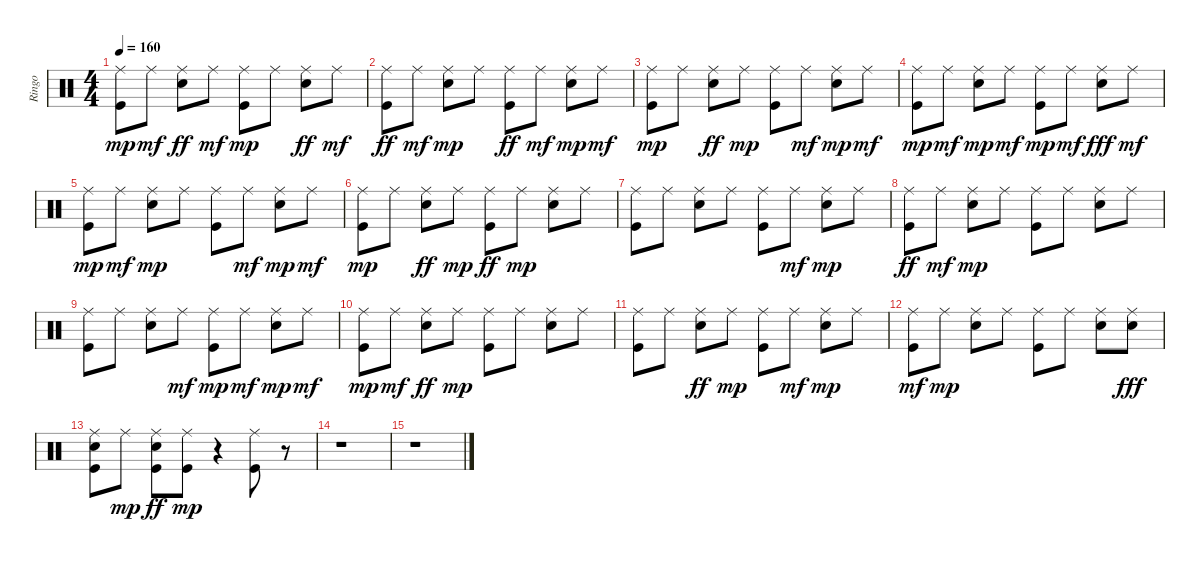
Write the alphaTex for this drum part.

\track ("Ringo" "Ringo") {instrument percussion}
\staff {score}
\articulation defaults
\ts (4 4)
\tempo 160
\clef neutral
\ks c
("Kick (hit)" "Ride (middle)").8{dy mp} "Ride (middle)".8{dy mf} ("Ride (middle)" "Electric Snare (hit)").8{dy ff} "Ride (middle)".8{dy mf} ("Kick (hit)" "Ride (middle)").8{dy mp} "Ride (middle)".8 ("Ride (middle)" "Electric Snare (hit)").8{dy ff} "Ride (middle)".8{dy mf} |
("Ride (middle)" "Kick (hit)").8{dy ff} "Ride (middle)".8{dy mf} ("Electric Snare (hit)" "Ride (middle)").8{dy mp} "Ride (middle)".8 ("Ride (middle)" "Kick (hit)").8{dy ff} "Ride (middle)".8{dy mf} ("Ride (middle)" "Electric Snare (hit)").8{dy mp} "Ride (middle)".8{dy mf} |
("Kick (hit)" "Ride (middle)").8{dy mp} "Ride (middle)".8 ("Ride (middle)" "Electric Snare (hit)").8{dy ff} "Ride (middle)".8{dy mp} ("Ride (middle)" "Kick (hit)").8 "Ride (middle)".8{dy mf} ("Electric Snare (hit)" "Ride (middle)").8{dy mp} "Ride (middle)".8{dy mf} |
("Kick (hit)" "Ride (middle)").8{dy mp} "Ride (middle)".8{dy mf} ("Electric Snare (hit)" "Ride (middle)").8{dy mp} "Ride (middle)".8{dy mf} ("Kick (hit)" "Ride (middle)").8{dy mp} "Ride (middle)".8{dy mf} ("Ride (middle)" "Electric Snare (hit)").8{dy fff} "Ride (middle)".8{dy mf} |
("Kick (hit)" "Ride (middle)").8{dy mp} "Ride (middle)".8{dy mf} ("Electric Snare (hit)" "Ride (middle)").8{dy mp} "Ride (middle)".8 ("Kick (hit)" "Ride (middle)").8 "Ride (middle)".8{dy mf} ("Electric Snare (hit)" "Ride (middle)").8{dy mp} "Ride (middle)".8{dy mf} |
("Kick (hit)" "Ride (middle)").8{dy mp} "Ride (middle)".8 ("Ride (middle)" "Electric Snare (hit)").8{dy ff} "Ride (middle)".8{dy mp} ("Ride (middle)" "Kick (hit)").8{dy ff} "Ride (middle)".8{dy mp} ("Electric Snare (hit)" "Ride (middle)").8 "Ride (middle)".8 |
("Kick (hit)" "Ride (middle)").8 "Ride (middle)".8 ("Electric Snare (hit)" "Ride (middle)").8 "Ride (middle)".8 ("Kick (hit)" "Ride (middle)").8 "Ride (middle)".8{dy mf} ("Electric Snare (hit)" "Ride (middle)").8{dy mp} "Ride (middle)".8 |
("Ride (middle)" "Kick (hit)").8{dy ff} "Ride (middle)".8{dy mf} ("Electric Snare (hit)" "Ride (middle)").8{dy mp} "Ride (middle)".8 ("Kick (hit)" "Ride (middle)").8 "Ride (middle)".8 ("Electric Snare (hit)" "Ride (middle)").8 "Ride (middle)".8 |
("Kick (hit)" "Ride (middle)").8 "Ride (middle)".8 ("Electric Snare (hit)" "Ride (middle)").8 "Ride (middle)".8{dy mf} ("Kick (hit)" "Ride (middle)").8{dy mp} "Ride (middle)".8{dy mf} ("Electric Snare (hit)" "Ride (middle)").8{dy mp} "Ride (middle)".8{dy mf} |
("Kick (hit)" "Ride (middle)").8{dy mp} "Ride (middle)".8{dy mf} ("Ride (middle)" "Electric Snare (hit)").8{dy ff} "Ride (middle)".8{dy mp} ("Kick (hit)" "Ride (middle)").8 "Ride (middle)".8 ("Electric Snare (hit)" "Ride (middle)").8 "Ride (middle)".8 |
("Kick (hit)" "Ride (middle)").8 "Ride (middle)".8 ("Ride (middle)" "Electric Snare (hit)").8{dy ff} "Ride (middle)".8{dy mp} ("Kick (hit)" "Ride (middle)").8 "Ride (middle)".8{dy mf} ("Electric Snare (hit)" "Ride (middle)").8{dy mp} "Ride (middle)".8 |
("Kick (hit)" "Ride (middle)").8{dy mf} "Ride (middle)".8{dy mp} ("Electric Snare (hit)" "Ride (middle)").8 "Ride (middle)".8 ("Kick (hit)" "Ride (middle)").8 "Ride (middle)".8 ("Electric Snare (hit)" "Ride (middle)").8 ("Ride (middle)" "Electric Snare (hit)").8{dy fff} |
("Ride (middle)" "Kick (hit)" "Electric Snare (hit)").8 "Ride (middle)".8{dy mp} ("Electric Snare (hit)" "Ride (middle)" "Kick (hit)").8{dy ff} ("Ride (middle)" "Kick (hit)").8{dy mp} r.4 ("Ride (middle)" "Kick (hit)").8 r.8 |
r.1 |
r.1
